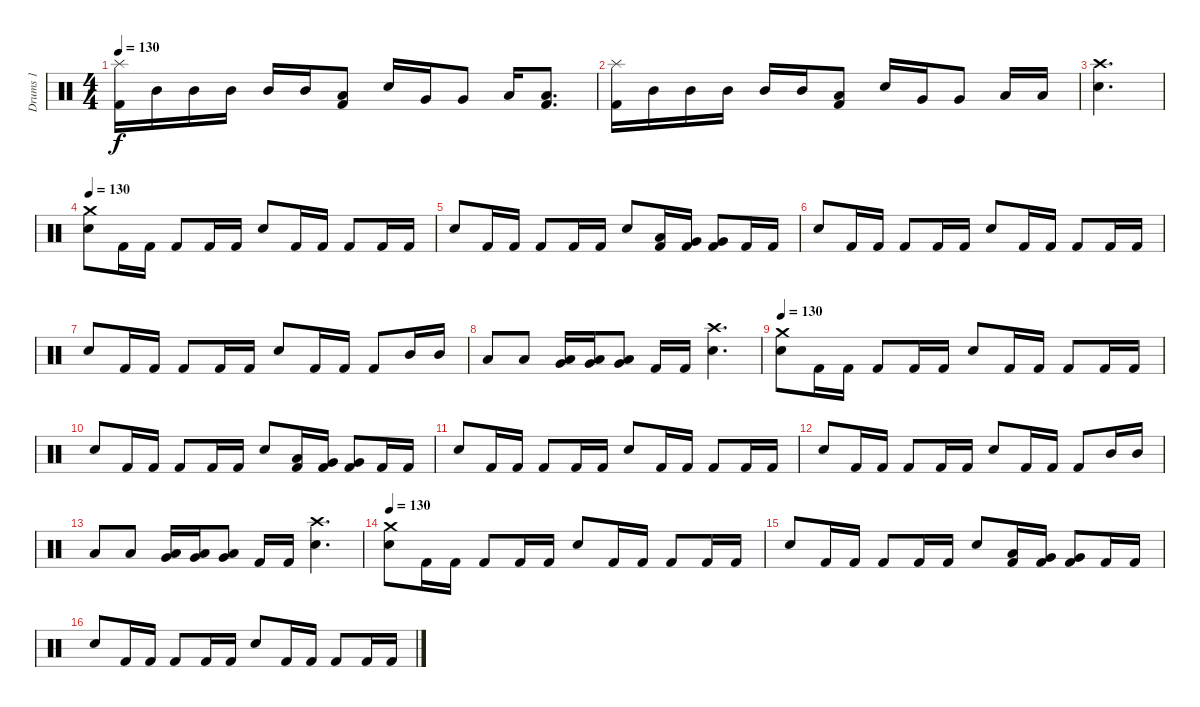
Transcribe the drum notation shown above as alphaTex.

\track ("Drums 1" "Drums 1") {instrument percussion}
\staff {score}
\articulation defaults
\ts (4 4)
\tempo 130
\clef neutral
\ks c
("Splash (hit)" "Kick (hit) 2").16{dy f} "Mid Tom (hit)".16 "Mid Tom (hit)".16 "Mid Tom (hit)".16 "Mid Tom (hit)".16 "Mid Tom (hit)".16 ("Low Tom (hit)" "Kick (hit) 2").8 "Snare (hit) 2".16 "Very Low Tom (hit)".16 "Very Low Tom (hit)".8 "Low Floor Tom (hit)".16 ("Low Floor Tom (hit)" "Kick (hit) 2").8{d} |
("Splash (hit)" "Kick (hit) 2").16 "Mid Tom (hit)".16 "Mid Tom (hit)".16 "Mid Tom (hit)".16 "Mid Tom (hit)".16 "Mid Tom (hit)".16 ("Low Tom (hit)" "Kick (hit) 2").8 "Snare (hit) 2".16 "Very Low Tom (hit)".16 "Very Low Tom (hit)".8 "Low Floor Tom (hit)".16 "Low Floor Tom (hit)".16 |
("Crash high (hit)" "Snare (hit) 2").4{d} |
\tempo 130
("Crash medium (hit)" "Snare (hit) 2").8 "Kick (hit) 2".16 "Kick (hit) 2".16 "Kick (hit) 2".8 "Kick (hit) 2".16 "Kick (hit) 2".16 "Snare (hit) 2".8 "Kick (hit) 2".16 "Kick (hit) 2".16 "Kick (hit) 2".8 "Kick (hit) 2".16 "Kick (hit) 2".16 |
"Snare (hit) 2".8 "Kick (hit) 2".16 "Kick (hit) 2".16 "Kick (hit) 2".8 "Kick (hit) 2".16 "Kick (hit) 2".16 "Snare (hit) 2".8 ("Low Tom (hit)" "Kick (hit) 2").16 ("Very Low Tom (hit)" "Kick (hit) 2").16 ("Very Low Tom (hit)" "Kick (hit) 2").8 "Kick (hit) 2".16 "Kick (hit) 2".16 |
"Snare (hit) 2".8 "Kick (hit) 2".16 "Kick (hit) 2".16 "Kick (hit) 2".8 "Kick (hit) 2".16 "Kick (hit) 2".16 "Snare (hit) 2".8 "Kick (hit) 2".16 "Kick (hit) 2".16 "Kick (hit) 2".8 "Kick (hit) 2".16 "Kick (hit) 2".16 |
"Snare (hit) 2".8 "Kick (hit) 2".16 "Kick (hit) 2".16 "Kick (hit) 2".8 "Kick (hit) 2".16 "Kick (hit) 2".16 "Snare (hit) 2".8 "Kick (hit) 2".16 "Kick (hit) 2".16 "Kick (hit) 2".8 "Mid Tom (hit)".16 "Mid Tom (hit)".16 |
"Low Tom (hit)".8 "Low Tom (hit)".8 ("Very Low Tom (hit)" "Low Floor Tom (hit)").16 ("Very Low Tom (hit)" "Low Floor Tom (hit)").16 ("Very Low Tom (hit)" "Low Floor Tom (hit)").8 "Kick (hit) 2".16 "Kick (hit) 2".16 ("Crash high (hit)" "Snare (hit) 2").4{d} |
\tempo 130
("Crash medium (hit)" "Snare (hit) 2").8 "Kick (hit) 2".16 "Kick (hit) 2".16 "Kick (hit) 2".8 "Kick (hit) 2".16 "Kick (hit) 2".16 "Snare (hit) 2".8 "Kick (hit) 2".16 "Kick (hit) 2".16 "Kick (hit) 2".8 "Kick (hit) 2".16 "Kick (hit) 2".16 |
"Snare (hit) 2".8 "Kick (hit) 2".16 "Kick (hit) 2".16 "Kick (hit) 2".8 "Kick (hit) 2".16 "Kick (hit) 2".16 "Snare (hit) 2".8 ("Low Tom (hit)" "Kick (hit) 2").16 ("Very Low Tom (hit)" "Kick (hit) 2").16 ("Very Low Tom (hit)" "Kick (hit) 2").8 "Kick (hit) 2".16 "Kick (hit) 2".16 |
"Snare (hit) 2".8 "Kick (hit) 2".16 "Kick (hit) 2".16 "Kick (hit) 2".8 "Kick (hit) 2".16 "Kick (hit) 2".16 "Snare (hit) 2".8 "Kick (hit) 2".16 "Kick (hit) 2".16 "Kick (hit) 2".8 "Kick (hit) 2".16 "Kick (hit) 2".16 |
"Snare (hit) 2".8 "Kick (hit) 2".16 "Kick (hit) 2".16 "Kick (hit) 2".8 "Kick (hit) 2".16 "Kick (hit) 2".16 "Snare (hit) 2".8 "Kick (hit) 2".16 "Kick (hit) 2".16 "Kick (hit) 2".8 "Mid Tom (hit)".16 "Mid Tom (hit)".16 |
"Low Tom (hit)".8 "Low Tom (hit)".8 ("Very Low Tom (hit)" "Low Floor Tom (hit)").16 ("Very Low Tom (hit)" "Low Floor Tom (hit)").16 ("Very Low Tom (hit)" "Low Floor Tom (hit)").8 "Kick (hit) 2".16 "Kick (hit) 2".16 ("Crash high (hit)" "Snare (hit) 2").4{d} |
\tempo 130
("Crash medium (hit)" "Snare (hit) 2").8 "Kick (hit) 2".16 "Kick (hit) 2".16 "Kick (hit) 2".8 "Kick (hit) 2".16 "Kick (hit) 2".16 "Snare (hit) 2".8 "Kick (hit) 2".16 "Kick (hit) 2".16 "Kick (hit) 2".8 "Kick (hit) 2".16 "Kick (hit) 2".16 |
"Snare (hit) 2".8 "Kick (hit) 2".16 "Kick (hit) 2".16 "Kick (hit) 2".8 "Kick (hit) 2".16 "Kick (hit) 2".16 "Snare (hit) 2".8 ("Low Tom (hit)" "Kick (hit) 2").16 ("Very Low Tom (hit)" "Kick (hit) 2").16 ("Very Low Tom (hit)" "Kick (hit) 2").8 "Kick (hit) 2".16 "Kick (hit) 2".16 |
"Snare (hit) 2".8 "Kick (hit) 2".16 "Kick (hit) 2".16 "Kick (hit) 2".8 "Kick (hit) 2".16 "Kick (hit) 2".16 "Snare (hit) 2".8 "Kick (hit) 2".16 "Kick (hit) 2".16 "Kick (hit) 2".8 "Kick (hit) 2".16 "Kick (hit) 2".16
